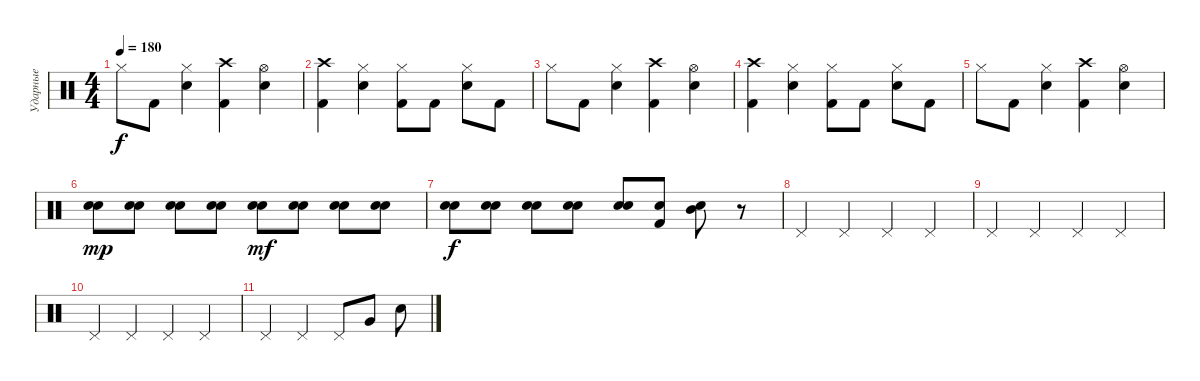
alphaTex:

\track ("Ударные" "Ударные") {instrument percussion}
\staff {score}
\articulation defaults
\ts (4 4)
\tempo 180
\clef neutral
\ks c "Hi-Hat (closed)".8{dy f} "Kick (hit) 2".8
("Electric Snare (hit)" "Hi-Hat (closed)").4 ("Kick (hit) 2" "Crash high (hit)").4 ("Electric Snare (hit)" "Hi-Hat (open)").4 |
("Kick (hit) 2" "Crash high (hit)").4 ("Electric Snare (hit)" "Hi-Hat (closed)").4 ("Kick (hit) 2" "Hi-Hat (closed)").8 "Kick (hit) 2".8 ("Electric Snare (hit)" "Hi-Hat (closed)").8 "Kick (hit) 2".8 |
"Hi-Hat (closed)".8 "Kick (hit) 2".8 ("Electric Snare (hit)" "Hi-Hat (closed)").4 ("Kick (hit) 2" "Crash high (hit)").4 ("Electric Snare (hit)" "Hi-Hat (open)").4 |
("Kick (hit) 2" "Crash high (hit)").4 ("Electric Snare (hit)" "Hi-Hat (closed)").4 ("Kick (hit) 2" "Hi-Hat (closed)").8 "Kick (hit) 2".8 ("Electric Snare (hit)" "Hi-Hat (closed)").8 "Kick (hit) 2".8 |
"Hi-Hat (closed)".8 "Kick (hit) 2".8 ("Electric Snare (hit)" "Hi-Hat (closed)").4 ("Kick (hit) 2" "Crash high (hit)").4 ("Electric Snare (hit)" "Hi-Hat (open)").4 |
("Electric Snare (hit)" "Electric Snare (hit)").8{dy mp} ("Electric Snare (hit)" "Electric Snare (hit)").8 ("Electric Snare (hit)" "Electric Snare (hit)").8 ("Electric Snare (hit)" "Electric Snare (hit)").8 ("Electric Snare (hit)" "Electric Snare (hit)").8{dy mf} ("Electric Snare (hit)" "Electric Snare (hit)").8 ("Electric Snare (hit)" "Electric Snare (hit)").8 ("Electric Snare (hit)" "Electric Snare (hit)").8 |
("Electric Snare (hit)" "Electric Snare (hit)").8{dy f} ("Electric Snare (hit)" "Electric Snare (hit)").8 ("Electric Snare (hit)" "Electric Snare (hit)").8 ("Electric Snare (hit)" "Electric Snare (hit)").8 ("Electric Snare (hit)" "Electric Snare (hit)").8 ("Kick (hit) 2" "Electric Snare (hit)").8 ("Electric Snare (hit)" "Mid Tom (hit)").8 r.8 |
"Pedal Hi-Hat (hit)".4 "Pedal Hi-Hat (hit)".4 "Pedal Hi-Hat (hit)".4 "Pedal Hi-Hat (hit)".4 |
"Pedal Hi-Hat (hit)".4 "Pedal Hi-Hat (hit)".4 "Pedal Hi-Hat (hit)".4 "Pedal Hi-Hat (hit)".4 |
"Pedal Hi-Hat (hit)".4 "Pedal Hi-Hat (hit)".4 "Pedal Hi-Hat (hit)".4 "Pedal Hi-Hat (hit)".4 |
"Pedal Hi-Hat (hit)".4 "Pedal Hi-Hat (hit)".4 "Pedal Hi-Hat (hit)".8 "Very Low Tom (hit)".8 "Electric Snare (hit)".8
